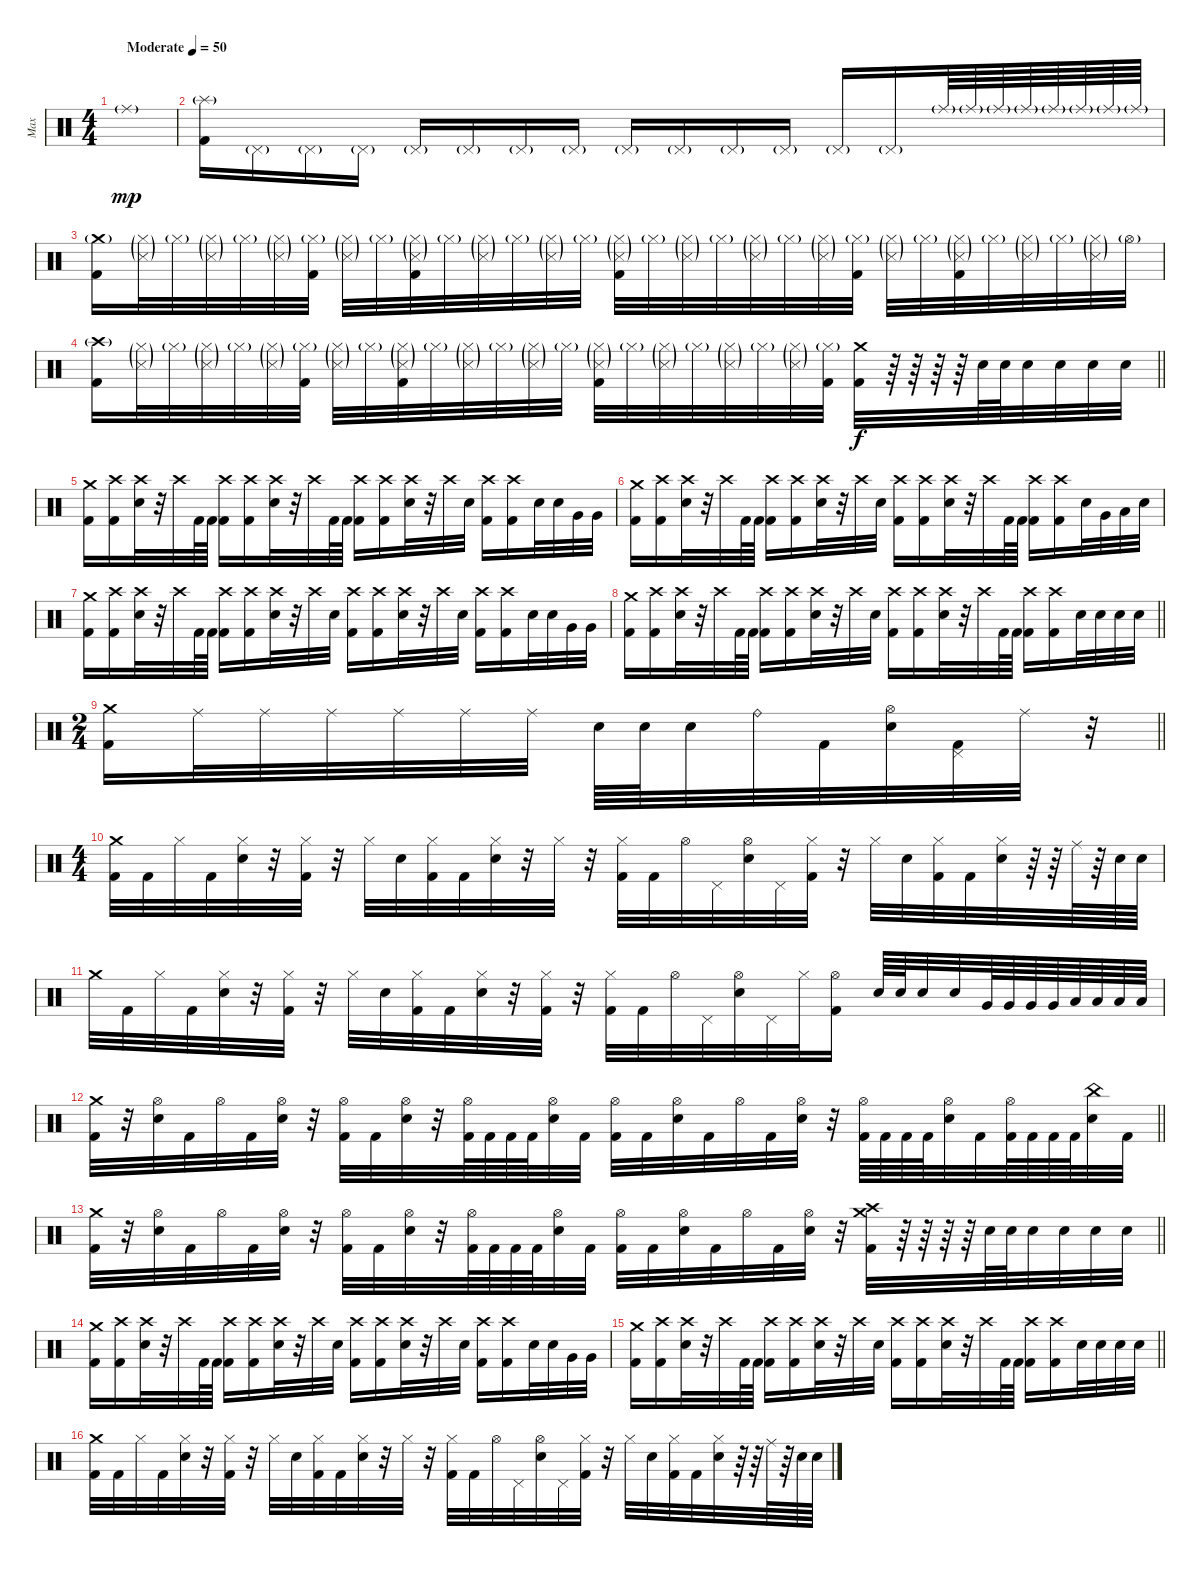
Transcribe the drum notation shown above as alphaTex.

\track ("Max" "Max") {instrument percussion}
\staff {score}
\articulation defaults
\ts (4 4)
\tempo (50 "Moderate")
\clef neutral
\ks c "Ride (middle)"{g}.1{dy mp}
|
("Splash (hit)"{g} "Kick (hit) 2").16 "Pedal Hi-Hat (hit)"{g}.16 "Pedal Hi-Hat (hit)"{g}.16 "Pedal Hi-Hat (hit)"{g}.16 "Pedal Hi-Hat (hit)"{g}.16 "Pedal Hi-Hat (hit)"{g}.16 "Pedal Hi-Hat (hit)"{g}.16 "Pedal Hi-Hat (hit)"{g}.16 "Pedal Hi-Hat (hit)"{g}.16 "Pedal Hi-Hat (hit)"{g}.16 "Pedal Hi-Hat (hit)"{g}.16 "Pedal Hi-Hat (hit)"{g}.16 "Pedal Hi-Hat (hit)"{g}.16 "Pedal Hi-Hat (hit)"{g}.16 "Ride (middle)"{g}.64 "Ride (middle)"{g}.64 "Ride (middle)"{g}.64 "Ride (middle)"{g}.64 "Ride (middle)"{g}.64 "Ride (middle)"{g}.64 "Ride (middle)"{g}.64 "Ride (middle)"{g}.64 |
("Crash medium (hit)"{g} "Kick (hit) 2").16 ("Hi-Hat (closed)"{g} "Snare (side stick) 3"{g}).32 "Hi-Hat (closed)"{g}.32 ("Hi-Hat (closed)"{g} "Snare (side stick) 3"{g}).32 "Hi-Hat (closed)"{g}.32 ("Hi-Hat (closed)"{g} "Snare (side stick) 3"{g}).32 ("Hi-Hat (closed)"{g} "Kick (hit) 2").32 ("Hi-Hat (closed)"{g} "Snare (side stick) 3"{g}).32 "Hi-Hat (closed)"{g}.32 ("Hi-Hat (closed)"{g} "Snare (side stick) 3"{g} "Kick (hit) 2").32 "Hi-Hat (closed)"{g}.32 ("Hi-Hat (closed)"{g} "Snare (side stick) 3"{g}).32 "Hi-Hat (closed)"{g}.32 ("Hi-Hat (closed)"{g} "Snare (side stick) 3"{g}).32 "Hi-Hat (closed)"{g}.32 ("Hi-Hat (closed)"{g} "Snare (side stick) 3"{g} "Kick (hit) 2").32 "Hi-Hat (closed)"{g}.32 ("Hi-Hat (closed)"{g} "Snare (side stick) 3"{g}).32 "Hi-Hat (closed)"{g}.32 ("Hi-Hat (closed)"{g} "Snare (side stick) 3"{g}).32 "Hi-Hat (closed)"{g}.32 ("Hi-Hat (closed)"{g} "Snare (side stick) 3"{g}).32 ("Hi-Hat (closed)"{g} "Kick (hit) 2").32 ("Hi-Hat (closed)"{g} "Snare (side stick) 3"{g}).32 "Hi-Hat (closed)"{g}.32 ("Hi-Hat (closed)"{g} "Snare (side stick) 3"{g} "Kick (hit) 2").32 "Hi-Hat (closed)"{g}.32 ("Hi-Hat (closed)"{g} "Snare (side stick) 3"{g}).32 "Hi-Hat (closed)"{g}.32 ("Hi-Hat (closed)"{g} "Snare (side stick) 3"{g}).32 "Hi-Hat (open)"{g}.32 |
\barLineRight lightlight
("Crash high (hit)"{g} "Kick (hit) 2").16 ("Hi-Hat (closed)"{g} "Snare (side stick) 3"{g}).32 "Hi-Hat (closed)"{g}.32 ("Hi-Hat (closed)"{g} "Snare (side stick) 3"{g}).32 "Hi-Hat (closed)"{g}.32 ("Hi-Hat (closed)"{g} "Snare (side stick) 3"{g}).32 ("Hi-Hat (closed)"{g} "Kick (hit) 2").32 ("Hi-Hat (closed)"{g} "Snare (side stick) 3"{g}).32 "Hi-Hat (closed)"{g}.32 ("Hi-Hat (closed)"{g} "Snare (side stick) 3"{g} "Kick (hit) 2").32 "Hi-Hat (closed)"{g}.32 ("Hi-Hat (closed)"{g} "Snare (side stick) 3"{g}).32 "Hi-Hat (closed)"{g}.32 ("Hi-Hat (closed)"{g} "Snare (side stick) 3"{g}).32 "Hi-Hat (closed)"{g}.32 ("Hi-Hat (closed)"{g} "Snare (side stick) 3"{g} "Kick (hit) 2").32 "Hi-Hat (closed)"{g}.32 ("Hi-Hat (closed)"{g} "Snare (side stick) 3"{g}).32 "Hi-Hat (closed)"{g}.32 ("Hi-Hat (closed)"{g} "Snare (side stick) 3"{g}).32 "Hi-Hat (closed)"{g}.32 ("Hi-Hat (closed)"{g} "Snare (side stick) 3"{g}).32 ("Hi-Hat (closed)"{g} "Kick (hit) 2").32 ("Crash medium (hit)" "Kick (hit) 2").32{dy f} r.64 r.64 r.64 r.64 "Electric Snare (hit)".64 "Electric Snare (hit)".64 "Electric Snare (hit)".32 "Electric Snare (hit)".32 "Electric Snare (hit)".32 "Electric Snare (hit)".32 |
\section ("" "")
("Crash medium (hit)" "Kick (hit) 2").16 ("Crash high (hit)" "Kick (hit) 2").16 ("Crash high (hit)" "Electric Snare (hit)").32 r.32 "Crash high (hit)".32 "Kick (hit) 2".64 "Kick (hit) 2".64 ("Crash high (hit)" "Kick (hit) 2").16 ("Crash high (hit)" "Kick (hit) 2").16 ("Crash high (hit)" "Electric Snare (hit)").32 r.32 "Crash high (hit)".32 "Kick (hit) 2".64 "Kick (hit) 2".64 ("Crash high (hit)" "Kick (hit) 2").16 ("Crash high (hit)" "Kick (hit) 2").16 ("Crash high (hit)" "Electric Snare (hit)").32 r.32 "Crash high (hit)".32 "Electric Snare (hit)".32 ("Crash high (hit)" "Kick (hit) 2").16 ("Crash high (hit)" "Kick (hit) 2").16 "Electric Snare (hit)".32 "Electric Snare (hit)".32 "Very Low Tom (hit)".32 "Very Low Tom (hit)".32 |
("Crash medium (hit)" "Kick (hit) 2").16 ("Crash high (hit)" "Kick (hit) 2").16 ("Crash high (hit)" "Electric Snare (hit)").32 r.32 "Crash high (hit)".32 "Kick (hit) 2".64 "Kick (hit) 2".64 ("Crash high (hit)" "Kick (hit) 2").16 ("Crash high (hit)" "Kick (hit) 2").16 ("Crash high (hit)" "Electric Snare (hit)").32 r.32 "Crash high (hit)".32 "Electric Snare (hit)".32 ("Crash high (hit)" "Kick (hit) 2").16 ("Crash high (hit)" "Kick (hit) 2").16 ("Crash high (hit)" "Electric Snare (hit)").32 r.32 "Crash high (hit)".32 "Kick (hit) 2".64 "Kick (hit) 2".64 ("Crash high (hit)" "Kick (hit) 2").16 ("Crash high (hit)" "Kick (hit) 2").16 "Electric Snare (hit)".32 "Very Low Tom (hit)".32 "Low Floor Tom (hit)".32 "Electric Snare (hit)".32 |
("Crash medium (hit)" "Kick (hit) 2").16 ("Crash high (hit)" "Kick (hit) 2").16 ("Crash high (hit)" "Electric Snare (hit)").32 r.32 "Crash high (hit)".32 "Kick (hit) 2".64 "Kick (hit) 2".64 ("Crash high (hit)" "Kick (hit) 2").16 ("Crash high (hit)" "Kick (hit) 2").16 ("Crash high (hit)" "Electric Snare (hit)").32 r.32 "Crash high (hit)".32 "Electric Snare (hit)".32 ("Crash high (hit)" "Kick (hit) 2").16 ("Crash high (hit)" "Kick (hit) 2").16 ("Crash high (hit)" "Electric Snare (hit)").32 r.32 "Crash high (hit)".32 "Electric Snare (hit)".32 ("Crash high (hit)" "Kick (hit) 2").16 ("Crash high (hit)" "Kick (hit) 2").16 "Electric Snare (hit)".32 "Electric Snare (hit)".32 "Very Low Tom (hit)".32 "Very Low Tom (hit)".32 |
\barLineRight lightlight
("Crash medium (hit)" "Kick (hit) 2").16 ("Crash high (hit)" "Kick (hit) 2").16 ("Crash high (hit)" "Electric Snare (hit)").32 r.32 "Crash high (hit)".32 "Kick (hit) 2".64 "Kick (hit) 2".64 ("Crash high (hit)" "Kick (hit) 2").16 ("Crash high (hit)" "Kick (hit) 2").16 ("Crash high (hit)" "Electric Snare (hit)").32 r.32 "Crash high (hit)".32 "Electric Snare (hit)".32 ("Crash high (hit)" "Kick (hit) 2").16 ("Crash high (hit)" "Kick (hit) 2").16 ("Crash high (hit)" "Electric Snare (hit)").32 r.32 "Crash high (hit)".32 "Kick (hit) 2".64 "Kick (hit) 2".64 ("Crash high (hit)" "Kick (hit) 2").16 ("Crash high (hit)" "Kick (hit) 2").16 "Electric Snare (hit)".32 "Electric Snare (hit)".32 "Electric Snare (hit)".32 "Electric Snare (hit)".32 |
\ts (2 4)
\section ("" "")
\barLineRight lightlight
("Crash medium (hit)" "Kick (hit) 2").16 "Ride (middle)".32 "Ride (middle)".32 "Ride (middle)".32 "Ride (middle)".32 "Ride (middle)".32 "Ride (middle)".32 "Electric Snare (hit)".64 "Electric Snare (hit)".64 "Electric Snare (hit)".32 "Ride (bell)".32 "Kick (hit) 2".32 ("Hi-Hat (open)" "Electric Snare (hit)").32 ("Pedal Hi-Hat (hit)" "Kick (hit) 2").32 "Ride (middle)".32 r.32 |
\ts (4 4)
\section ("" "")
("Crash medium (hit)" "Kick (hit) 2").32 "Kick (hit) 2".32 "Hi-Hat (closed)".32 "Kick (hit) 2".32 ("Hi-Hat (closed)" "Electric Snare (hit)").32 r.32 ("Hi-Hat (closed)" "Kick (hit) 2").32 r.32 "Hi-Hat (closed)".32 "Electric Snare (hit)".32 ("Hi-Hat (closed)" "Kick (hit) 2").32 "Kick (hit) 2".32 ("Hi-Hat (closed)" "Electric Snare (hit)").32 r.32 "Hi-Hat (closed)".32 r.32 ("Hi-Hat (closed)" "Kick (hit) 2").32 "Kick (hit) 2".32 "Hi-Hat (open)".32 "Pedal Hi-Hat (hit)".32 ("Hi-Hat (open)" "Electric Snare (hit)").32 "Pedal Hi-Hat (hit)".32 ("Hi-Hat (closed)" "Kick (hit) 2").32 r.32 "Hi-Hat (closed)".32 "Electric Snare (hit)".32 ("Hi-Hat (closed)" "Kick (hit) 2").32 "Kick (hit) 2".32 ("Hi-Hat (closed)" "Electric Snare (hit)").32 r.64 r.64 "Ride (middle)".64 r.64 "Electric Snare (hit)".64 "Electric Snare (hit)".64 |
"Crash medium (hit)".32 "Kick (hit) 2".32 "Hi-Hat (closed)".32 "Kick (hit) 2".32 ("Hi-Hat (closed)" "Electric Snare (hit)").32 r.32 ("Hi-Hat (closed)" "Kick (hit) 2").32 r.32 "Hi-Hat (closed)".32 "Electric Snare (hit)".32 ("Hi-Hat (closed)" "Kick (hit) 2").32 "Kick (hit) 2".32 ("Hi-Hat (closed)" "Electric Snare (hit)").32 r.32 ("Hi-Hat (closed)" "Kick (hit) 2").32 r.32 ("Hi-Hat (closed)" "Kick (hit) 2").32 "Kick (hit) 2".32 "Hi-Hat (open)".32 "Pedal Hi-Hat (hit)".32 ("Hi-Hat (open)" "Electric Snare (hit)").32 "Pedal Hi-Hat (hit)".32 "Hi-Hat (closed)".32 ("Hi-Hat (open)" "Kick (hit) 2").16 "Electric Snare (hit)".64 "Electric Snare (hit)".64 "Electric Snare (hit)".32 "Electric Snare (hit)".32 "Very Low Tom (hit)".64 "Very Low Tom (hit)".64 "Very Low Tom (hit)".64 "Very Low Tom (hit)".64 "Low Floor Tom (hit)".64 "Low Floor Tom (hit)".64 "Low Floor Tom (hit)".64 "Low Floor Tom (hit)".64 |
\barLineRight lightlight
("Crash medium (hit)" "Kick (hit) 2").32 r.32 ("Hi-Hat (open)" "Electric Snare (hit)").32 "Kick (hit) 2".32 "Hi-Hat (open)".32 "Kick (hit) 2".32 ("Hi-Hat (open)" "Electric Snare (hit)").32 r.32 ("Hi-Hat (open)" "Kick (hit) 2").32 "Kick (hit) 2".32 ("Hi-Hat (open)" "Electric Snare (hit)").32 r.32 ("Hi-Hat (open)" "Kick (hit) 2").64 "Kick (hit) 2".64 "Kick (hit) 2".64 "Kick (hit) 2".64 ("Hi-Hat (open)" "Electric Snare (hit)").32 "Kick (hit) 2".32 ("Hi-Hat (open)" "Kick (hit) 2").32 "Kick (hit) 2".32 ("Hi-Hat (open)" "Electric Snare (hit)").32 "Kick (hit) 2".32 "Hi-Hat (open)".32 "Kick (hit) 2".32 ("Hi-Hat (open)" "Electric Snare (hit)").32 r.32 ("Hi-Hat (open)" "Kick (hit) 2").64 "Kick (hit) 2".64 "Kick (hit) 2".64 "Kick (hit) 2".64 ("Hi-Hat (open)" "Electric Snare (hit)").32 "Kick (hit) 2".32 ("Hi-Hat (open)" "Kick (hit) 2").64 "Kick (hit) 2".64 "Kick (hit) 2".64 "Kick (hit) 2".64 ("China (hit)" "Electric Snare (hit)").32 "Kick (hit) 2".32 |
\barLineRight lightlight
("Crash medium (hit)" "Kick (hit) 2").32 r.32 ("Hi-Hat (open)" "Electric Snare (hit)").32 "Kick (hit) 2".32 "Hi-Hat (open)".32 "Kick (hit) 2".32 ("Hi-Hat (open)" "Electric Snare (hit)").32 r.32 ("Hi-Hat (open)" "Kick (hit) 2").32 "Kick (hit) 2".32 ("Hi-Hat (open)" "Electric Snare (hit)").32 r.32 ("Hi-Hat (open)" "Kick (hit) 2").64 "Kick (hit) 2".64 "Kick (hit) 2".64 "Kick (hit) 2".64 ("Hi-Hat (open)" "Electric Snare (hit)").32 "Kick (hit) 2".32 ("Hi-Hat (open)" "Kick (hit) 2").32 "Kick (hit) 2".32 ("Hi-Hat (open)" "Electric Snare (hit)").32 "Kick (hit) 2".32 "Hi-Hat (open)".32 "Kick (hit) 2".32 ("Hi-Hat (open)" "Electric Snare (hit)").32 r.32 ("Crash medium (hit)" "Crash high (hit)" "Kick (hit) 2").32 r.64 r.64 r.64 r.64 "Electric Snare (hit)".64 "Electric Snare (hit)".64 "Electric Snare (hit)".32 "Electric Snare (hit)".32 "Electric Snare (hit)".32 "Electric Snare (hit)".32 |
\section ("" "")
("Crash medium (hit)" "Kick (hit) 2").16 ("Crash high (hit)" "Kick (hit) 2").16 ("Crash high (hit)" "Electric Snare (hit)").32 r.32 "Crash high (hit)".32 "Kick (hit) 2".64 "Kick (hit) 2".64 ("Crash high (hit)" "Kick (hit) 2").16 ("Crash high (hit)" "Kick (hit) 2").16 ("Crash high (hit)" "Electric Snare (hit)").32 r.32 "Crash high (hit)".32 "Electric Snare (hit)".32 ("Crash high (hit)" "Kick (hit) 2").16 ("Crash high (hit)" "Kick (hit) 2").16 ("Crash high (hit)" "Electric Snare (hit)").32 r.32 "Crash high (hit)".32 "Electric Snare (hit)".32 ("Crash high (hit)" "Kick (hit) 2").16 ("Crash high (hit)" "Kick (hit) 2").16 "Electric Snare (hit)".32 "Electric Snare (hit)".32 "Very Low Tom (hit)".32 "Very Low Tom (hit)".32 |
\barLineRight lightlight
("Crash medium (hit)" "Kick (hit) 2").16 ("Crash high (hit)" "Kick (hit) 2").16 ("Crash high (hit)" "Electric Snare (hit)").32 r.32 "Crash high (hit)".32 "Kick (hit) 2".64 "Kick (hit) 2".64 ("Crash high (hit)" "Kick (hit) 2").16 ("Crash high (hit)" "Kick (hit) 2").16 ("Crash high (hit)" "Electric Snare (hit)").32 r.32 "Crash high (hit)".32 "Electric Snare (hit)".32 ("Crash high (hit)" "Kick (hit) 2").16 ("Crash high (hit)" "Kick (hit) 2").16 ("Crash high (hit)" "Electric Snare (hit)").32 r.32 "Crash high (hit)".32 "Kick (hit) 2".64 "Kick (hit) 2".64 ("Crash high (hit)" "Kick (hit) 2").16 ("Crash high (hit)" "Kick (hit) 2").16 "Electric Snare (hit)".32 "Electric Snare (hit)".32 "Electric Snare (hit)".32 "Electric Snare (hit)".32 |
\section ("" "")
("Crash medium (hit)" "Kick (hit) 2").32 "Kick (hit) 2".32 "Hi-Hat (closed)".32 "Kick (hit) 2".32 ("Hi-Hat (closed)" "Electric Snare (hit)").32 r.32 ("Hi-Hat (closed)" "Kick (hit) 2").32 r.32 "Hi-Hat (closed)".32 "Electric Snare (hit)".32 ("Hi-Hat (closed)" "Kick (hit) 2").32 "Kick (hit) 2".32 ("Hi-Hat (closed)" "Electric Snare (hit)").32 r.32 "Hi-Hat (closed)".32 r.32 ("Hi-Hat (closed)" "Kick (hit) 2").32 "Kick (hit) 2".32 "Hi-Hat (open)".32 "Pedal Hi-Hat (hit)".32 ("Hi-Hat (open)" "Electric Snare (hit)").32 "Pedal Hi-Hat (hit)".32 ("Hi-Hat (closed)" "Kick (hit) 2").32 r.32 "Hi-Hat (closed)".32 "Electric Snare (hit)".32 ("Hi-Hat (closed)" "Kick (hit) 2").32 "Kick (hit) 2".32 ("Hi-Hat (closed)" "Electric Snare (hit)").32 r.64 r.64 "Ride (middle)".64 r.64 "Electric Snare (hit)".64 "Electric Snare (hit)".64
